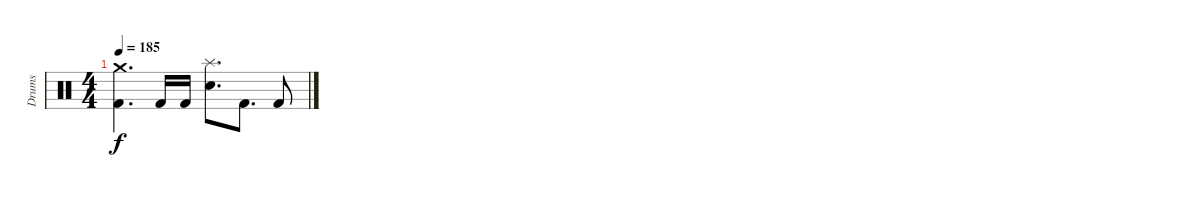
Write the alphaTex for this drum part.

\track ("Drums" "Drums") {instrument percussion}
\staff {score}
\articulation defaults
\ts (4 4)
\tempo 185
\clef neutral
\ks c
("Crash medium (hit)" "Kick (hit) 2").4{d dy f} "Kick (hit) 2".16 "Kick (hit) 2".16 ("Splash (hit)" "Snare (hit) 2").8{d} "Kick (hit) 2".8{d} "Kick (hit) 2".8
